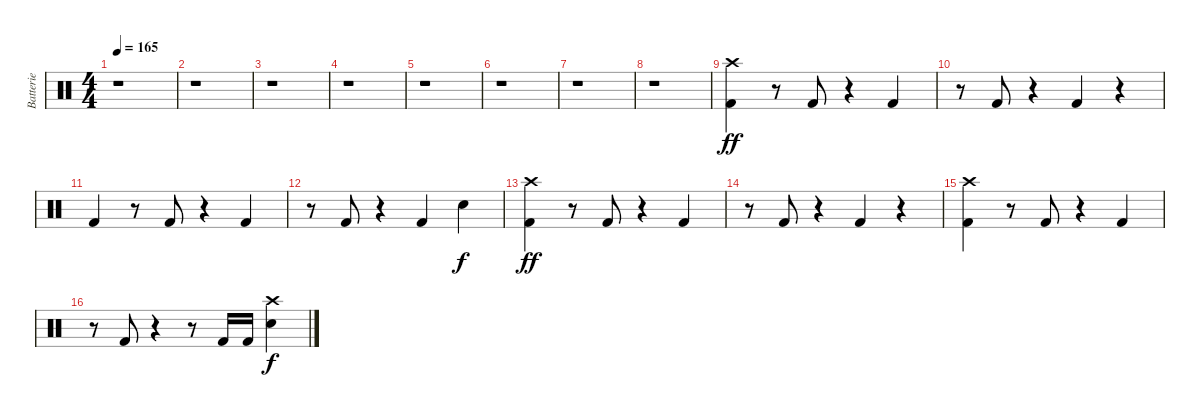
\track ("Batterie" "Batterie") {instrument percussion}
\staff {score}
\articulation defaults
\ts (4 4)
\tempo 165
\clef neutral
\ks c
r.1{dy ff} |
r.1 |
r.1 |
r.1 |
r.1 |
r.1 |
r.1 |
r.1 |
("Crash high (hit)" "Kick (hit) 2").4 r.8 "Kick (hit) 2".8 r.4 "Kick (hit) 2".4 |
r.8 "Kick (hit) 2".8 r.4 "Kick (hit) 2".4 r.4 |
"Kick (hit) 2".4 r.8 "Kick (hit) 2".8 r.4 "Kick (hit) 2".4 |
r.8 "Kick (hit) 2".8 r.4 "Kick (hit) 2".4 "Snare (hit) 2".4{dy f} |
("Crash high (hit)" "Kick (hit) 2").4{dy ff} r.8 "Kick (hit) 2".8 r.4 "Kick (hit) 2".4 |
r.8 "Kick (hit) 2".8 r.4 "Kick (hit) 2".4 r.4 |
("Crash high (hit)" "Kick (hit) 2").4 r.8 "Kick (hit) 2".8 r.4 "Kick (hit) 2".4 |
r.8 "Kick (hit) 2".8 r.4 r.8 "Kick (hit) 2".16 "Kick (hit) 2".16 ("Crash high (hit)" "Snare (hit) 2").4{dy f}
